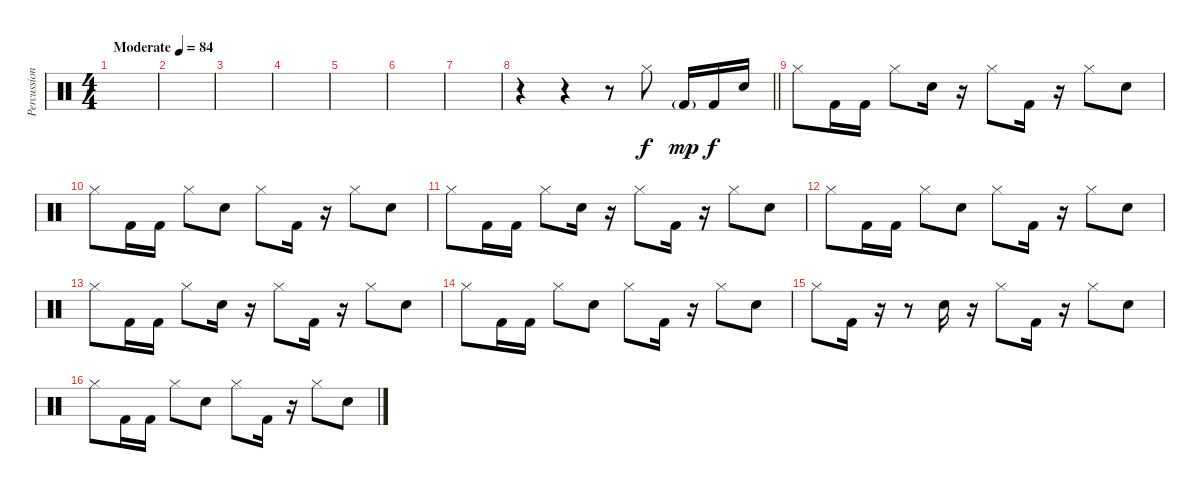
\track ("Percussions" "Percussion") {instrument percussion}
\staff {score}
\articulation defaults
\ts (4 4)
\tempo (84 "Moderate")
\clef neutral
\ks c
|
|
|
|
|
|
|
\barLineRight lightlight
r.4 r.4 r.8 "Hi-Hat (closed)".8 "Kick (hit) 2"{g}.16{dy mp} "Kick (hit) 2".16{dy f} "Snare (hit) 2".16 |
"Hi-Hat (closed)".8 "Kick (hit) 2".16 "Kick (hit) 2".16 "Hi-Hat (closed)".8 "Snare (hit) 2".16 r.16 "Hi-Hat (closed)".8 "Kick (hit) 2".16 r.16 "Hi-Hat (closed)".8 "Snare (hit) 2".8 |
"Hi-Hat (closed)".8 "Kick (hit) 2".16 "Kick (hit) 2".16 "Hi-Hat (closed)".8 "Snare (hit) 2".8 "Hi-Hat (closed)".8 "Kick (hit) 2".16 r.16 "Hi-Hat (closed)".8 "Snare (hit) 2".8 |
"Hi-Hat (closed)".8 "Kick (hit) 2".16 "Kick (hit) 2".16 "Hi-Hat (closed)".8 "Snare (hit) 2".16 r.16 "Hi-Hat (closed)".8 "Kick (hit) 2".16 r.16 "Hi-Hat (closed)".8 "Snare (hit) 2".8 |
"Hi-Hat (closed)".8 "Kick (hit) 2".16 "Kick (hit) 2".16 "Hi-Hat (closed)".8 "Snare (hit) 2".8 "Hi-Hat (closed)".8 "Kick (hit) 2".16 r.16 "Hi-Hat (closed)".8 "Snare (hit) 2".8 |
"Hi-Hat (closed)".8 "Kick (hit) 2".16 "Kick (hit) 2".16 "Hi-Hat (closed)".8 "Snare (hit) 2".16 r.16 "Hi-Hat (closed)".8 "Kick (hit) 2".16 r.16 "Hi-Hat (closed)".8 "Snare (hit) 2".8 |
"Hi-Hat (closed)".8 "Kick (hit) 2".16 "Kick (hit) 2".16 "Hi-Hat (closed)".8 "Snare (hit) 2".8 "Hi-Hat (closed)".8 "Kick (hit) 2".16 r.16 "Hi-Hat (closed)".8 "Snare (hit) 2".8 |
"Hi-Hat (closed)".8 "Kick (hit) 2".16 r.16 r.8 "Snare (hit) 2".16 r.16 "Hi-Hat (closed)".8 "Kick (hit) 2".16 r.16 "Hi-Hat (closed)".8 "Snare (hit) 2".8 |
"Hi-Hat (closed)".8 "Kick (hit) 2".16 "Kick (hit) 2".16 "Hi-Hat (closed)".8 "Snare (hit) 2".8 "Hi-Hat (closed)".8 "Kick (hit) 2".16 r.16 "Hi-Hat (closed)".8 "Snare (hit) 2".8
